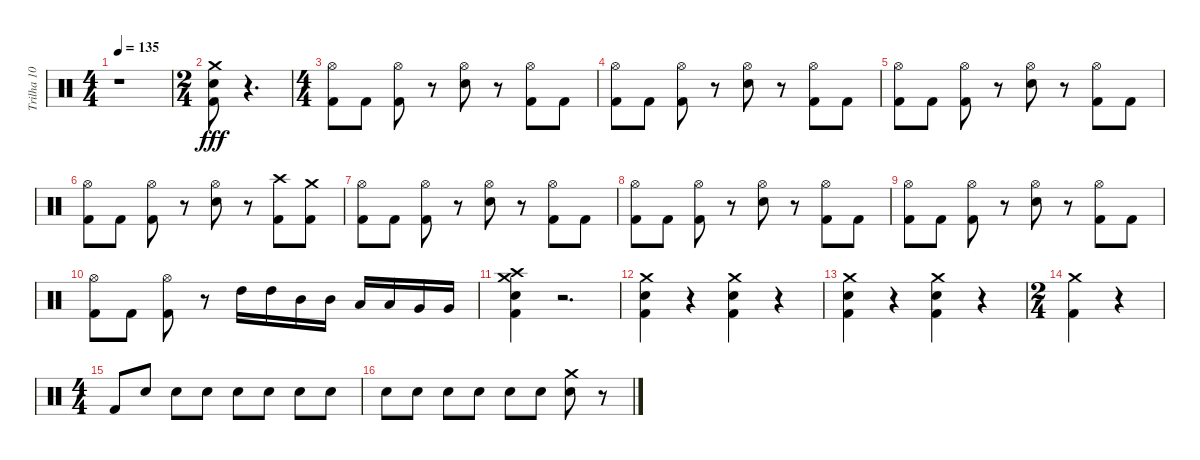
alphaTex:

\track ("Trilha 10" "Trilha 10") {instrument percussion}
\staff {score}
\articulation defaults
\ts (4 4)
\tempo 135
\clef neutral
\ks c
r.1{dy fff} |
\ts (2 4)
("Crash medium (hit)" "Electric Snare (hit)" "Kick (hit) 2").8 r.4{d} |
\ts (4 4)
("Kick (hit) 2" "Hi-Hat (open)").8 "Kick (hit) 2".8 ("Kick (hit) 2" "Hi-Hat (open)").8 r.8 ("Electric Snare (hit)" "Hi-Hat (open)").8 r.8 ("Kick (hit) 2" "Hi-Hat (open)").8 "Kick (hit) 2".8 |
("Kick (hit) 2" "Hi-Hat (open)").8 "Kick (hit) 2".8 ("Kick (hit) 2" "Hi-Hat (open)").8 r.8 ("Electric Snare (hit)" "Hi-Hat (open)").8 r.8 ("Kick (hit) 2" "Hi-Hat (open)").8 "Kick (hit) 2".8 |
("Kick (hit) 2" "Hi-Hat (open)").8 "Kick (hit) 2".8 ("Kick (hit) 2" "Hi-Hat (open)").8 r.8 ("Electric Snare (hit)" "Hi-Hat (open)").8 r.8 ("Kick (hit) 2" "Hi-Hat (open)").8 "Kick (hit) 2".8 |
("Kick (hit) 2" "Hi-Hat (open)").8 "Kick (hit) 2".8 ("Kick (hit) 2" "Hi-Hat (open)").8 r.8 ("Electric Snare (hit)" "Hi-Hat (open)").8 r.8 ("Kick (hit) 2" "Crash high (hit)").8 ("Kick (hit) 2" "Crash medium (hit)").8 |
("Kick (hit) 2" "Hi-Hat (open)").8 "Kick (hit) 2".8 ("Kick (hit) 2" "Hi-Hat (open)").8 r.8 ("Electric Snare (hit)" "Hi-Hat (open)").8 r.8 ("Kick (hit) 2" "Hi-Hat (open)").8 "Kick (hit) 2".8 |
("Kick (hit) 2" "Hi-Hat (open)").8 "Kick (hit) 2".8 ("Kick (hit) 2" "Hi-Hat (open)").8 r.8 ("Electric Snare (hit)" "Hi-Hat (open)").8 r.8 ("Kick (hit) 2" "Hi-Hat (open)").8 "Kick (hit) 2".8 |
("Kick (hit) 2" "Hi-Hat (open)").8 "Kick (hit) 2".8 ("Kick (hit) 2" "Hi-Hat (open)").8 r.8 ("Electric Snare (hit)" "Hi-Hat (open)").8 r.8 ("Kick (hit) 2" "Hi-Hat (open)").8 "Kick (hit) 2".8 |
("Hi-Hat (open)" "Kick (hit) 2").8 "Kick (hit) 2".8 ("Hi-Hat (open)" "Kick (hit) 2").8 r.8 "High Tom (hit)".16 "High Tom (hit)".16 "Mid Tom (hit)".16 "Mid Tom (hit)".16 "Low Tom (hit)".16 "Low Tom (hit)".16 "Very Low Tom (hit)".16 "Very Low Tom (hit)".16 |
("Crash medium (hit)" "Crash high (hit)" "Electric Snare (hit)" "Kick (hit) 2").4 r.2{d} |
("Crash medium (hit)" "Electric Snare (hit)" "Kick (hit) 2").4 r.4 ("Crash medium (hit)" "Electric Snare (hit)" "Kick (hit) 2").4 r.4 |
("Crash medium (hit)" "Electric Snare (hit)" "Kick (hit) 2").4 r.4 ("Crash medium (hit)" "Electric Snare (hit)" "Kick (hit) 2").4 r.4 |
\ts (2 4)
("Crash medium (hit)" "Kick (hit) 2").4 r.4 |
\ts (4 4)
"Kick (hit) 2".8 "Electric Snare (hit)".8 "Electric Snare (hit)".8 "Electric Snare (hit)".8 "Electric Snare (hit)".8 "Electric Snare (hit)".8 "Electric Snare (hit)".8 "Electric Snare (hit)".8 |
"Electric Snare (hit)".8 "Electric Snare (hit)".8 "Electric Snare (hit)".8 "Electric Snare (hit)".8 "Electric Snare (hit)".8 "Electric Snare (hit)".8 ("Crash medium (hit)" "Electric Snare (hit)").8 r.8
